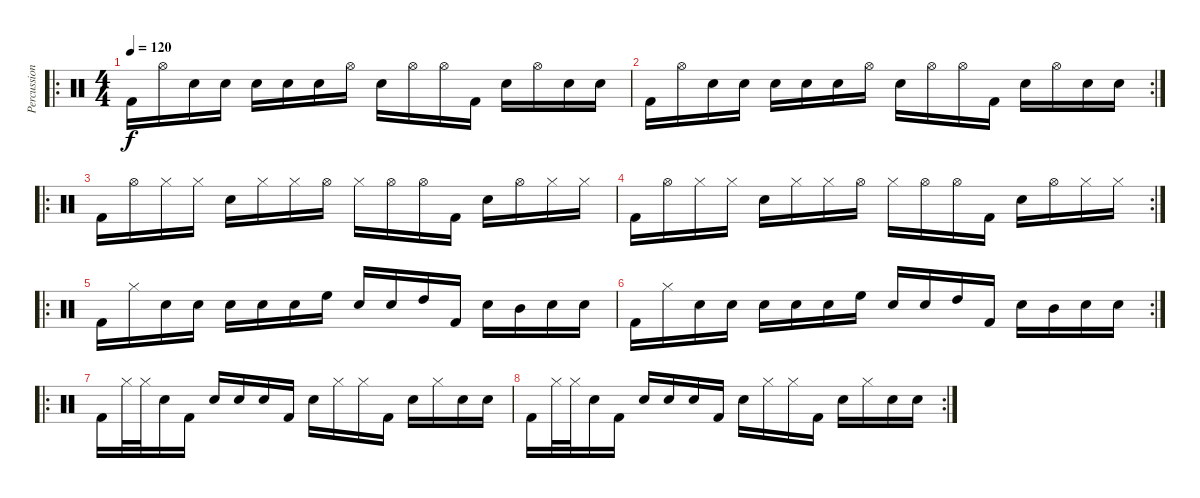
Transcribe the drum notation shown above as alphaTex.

\track ("Percussion" "Percussion") {instrument percussion}
\staff {score}
\articulation defaults
\ro
\ts (4 4)
\tempo 120
\clef neutral
\ks c "Kick (hit) 2".16{dy f} "Hi-Hat (open)".16 "Snare (hit) 2".16 "Snare (hit) 2".16 "Snare (hit) 2".16 "Snare (hit) 2".16 "Snare (hit) 2".16 "Hi-Hat (open)".16 "Snare (hit) 2".16 "Hi-Hat (open)".16 "Hi-Hat (open)".16 "Kick (hit) 2".16 "Snare (hit) 2".16 "Hi-Hat (open)".16 "Snare (hit) 2".16 "Snare (hit) 2".16
|
\rc 2 "Kick (hit) 2".16 "Hi-Hat (open)".16 "Snare (hit) 2".16 "Snare (hit) 2".16 "Snare (hit) 2".16 "Snare (hit) 2".16 "Snare (hit) 2".16 "Hi-Hat (open)".16 "Snare (hit) 2".16 "Hi-Hat (open)".16 "Hi-Hat (open)".16 "Kick (hit) 2".16 "Snare (hit) 2".16 "Hi-Hat (open)".16 "Snare (hit) 2".16 "Snare (hit) 2".16
|
\ro "Kick (hit) 2".16 "Hi-Hat (open)".16 "Hi-Hat (closed)".16 "Hi-Hat (closed)".16 "Snare (hit) 2".16 "Hi-Hat (closed)".16 "Hi-Hat (closed)".16 "Hi-Hat (open)".16 "Hi-Hat (closed)".16 "Hi-Hat (open)".16 "Hi-Hat (open)".16 "Kick (hit) 2".16 "Snare (hit) 2".16 "Hi-Hat (open)".16 "Hi-Hat (closed)".16 "Hi-Hat (closed)".16
|
\rc 2 "Kick (hit) 2".16 "Hi-Hat (open)".16 "Hi-Hat (closed)".16 "Hi-Hat (closed)".16 "Snare (hit) 2".16 "Hi-Hat (closed)".16 "Hi-Hat (closed)".16 "Hi-Hat (open)".16 "Hi-Hat (closed)".16 "Hi-Hat (open)".16 "Hi-Hat (open)".16 "Kick (hit) 2".16 "Snare (hit) 2".16 "Hi-Hat (open)".16 "Hi-Hat (closed)".16 "Hi-Hat (closed)".16
|
\ro "Kick (hit) 2".16 "Hi-Hat (closed)".16 "Snare (hit) 2".16 "Snare (hit) 2".16 "Snare (hit) 2".16 "Snare (hit) 2".16 "Snare (hit) 2".16 "High Floor Tom (hit)".16 "Snare (hit) 2".16 "Snare (hit) 2".16 "High Tom (hit)".16 "Kick (hit) 2".16 "Snare (hit) 2".16 "Mid Tom (hit)".16 "Snare (hit) 2".16 "Snare (hit) 2".16
|
\rc 2 "Kick (hit) 2".16 "Hi-Hat (closed)".16 "Snare (hit) 2".16 "Snare (hit) 2".16 "Snare (hit) 2".16 "Snare (hit) 2".16 "Snare (hit) 2".16 "High Floor Tom (hit)".16 "Snare (hit) 2".16 "Snare (hit) 2".16 "High Tom (hit)".16 "Kick (hit) 2".16 "Snare (hit) 2".16 "Mid Tom (hit)".16 "Snare (hit) 2".16 "Snare (hit) 2".16
|
\ro "Kick (hit) 2".16 "Hi-Hat (closed)".32 "Hi-Hat (closed)".32 "Snare (hit) 2".16 "Kick (hit) 2".16 "Snare (hit) 2".16 "Snare (hit) 2".16 "Snare (hit) 2".16 "Kick (hit) 2".16 "Snare (hit) 2".16 "Hi-Hat (closed)".16 "Hi-Hat (closed)".16 "Kick (hit) 2".16 "Snare (hit) 2".16 "Hi-Hat (closed)".16 "Snare (hit) 2".16 "Snare (hit) 2".16
|
\rc 2 "Kick (hit) 2".16 "Hi-Hat (closed)".32 "Hi-Hat (closed)".32 "Snare (hit) 2".16 "Kick (hit) 2".16 "Snare (hit) 2".16 "Snare (hit) 2".16 "Snare (hit) 2".16 "Kick (hit) 2".16 "Snare (hit) 2".16 "Hi-Hat (closed)".16 "Hi-Hat (closed)".16 "Kick (hit) 2".16 "Snare (hit) 2".16 "Hi-Hat (closed)".16 "Snare (hit) 2".16 "Snare (hit) 2".16
